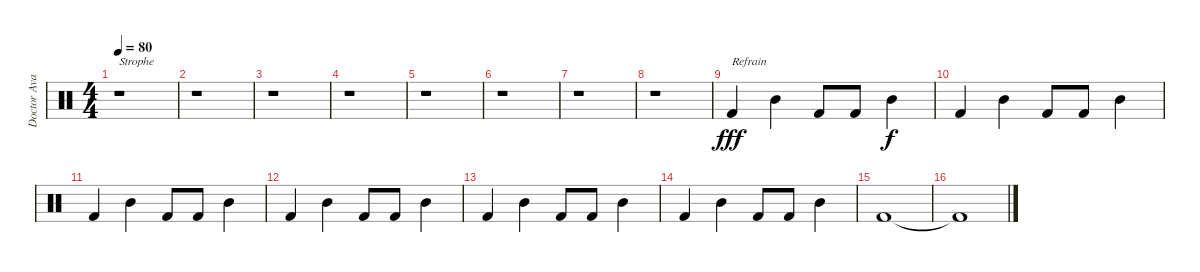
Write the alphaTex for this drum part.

\track ("Doctor Avalanche" "Doctor Ava") {instrument percussion}
\staff {score}
\articulation defaults
\ts (4 4)
\tempo 80
\clef neutral
\ks c
r.1{txt "Strophe" dy f} |
r.1 |
r.1 |
r.1 |
r.1 |
r.1 |
r.1 |
r.1 |
"Kick (hit) 2".4{txt "Refrain" dy fff} "Mid Tom (hit)".4 "Kick (hit) 2".8 "Kick (hit) 2".8 "Mid Tom (hit)".4{dy f} |
"Kick (hit) 2".4 "Mid Tom (hit)".4 "Kick (hit) 2".8 "Kick (hit) 2".8 "Mid Tom (hit)".4 |
"Kick (hit) 2".4 "Mid Tom (hit)".4 "Kick (hit) 2".8 "Kick (hit) 2".8 "Mid Tom (hit)".4 |
"Kick (hit) 2".4 "Mid Tom (hit)".4 "Kick (hit) 2".8 "Kick (hit) 2".8 "Mid Tom (hit)".4 |
"Kick (hit) 2".4 "Mid Tom (hit)".4 "Kick (hit) 2".8 "Kick (hit) 2".8 "Mid Tom (hit)".4 |
"Kick (hit) 2".4 "Mid Tom (hit)".4 "Kick (hit) 2".8 "Kick (hit) 2".8 "Mid Tom (hit)".4 |
"Kick (hit) 2".1 |
"Kick (hit) 2"{t}.1
